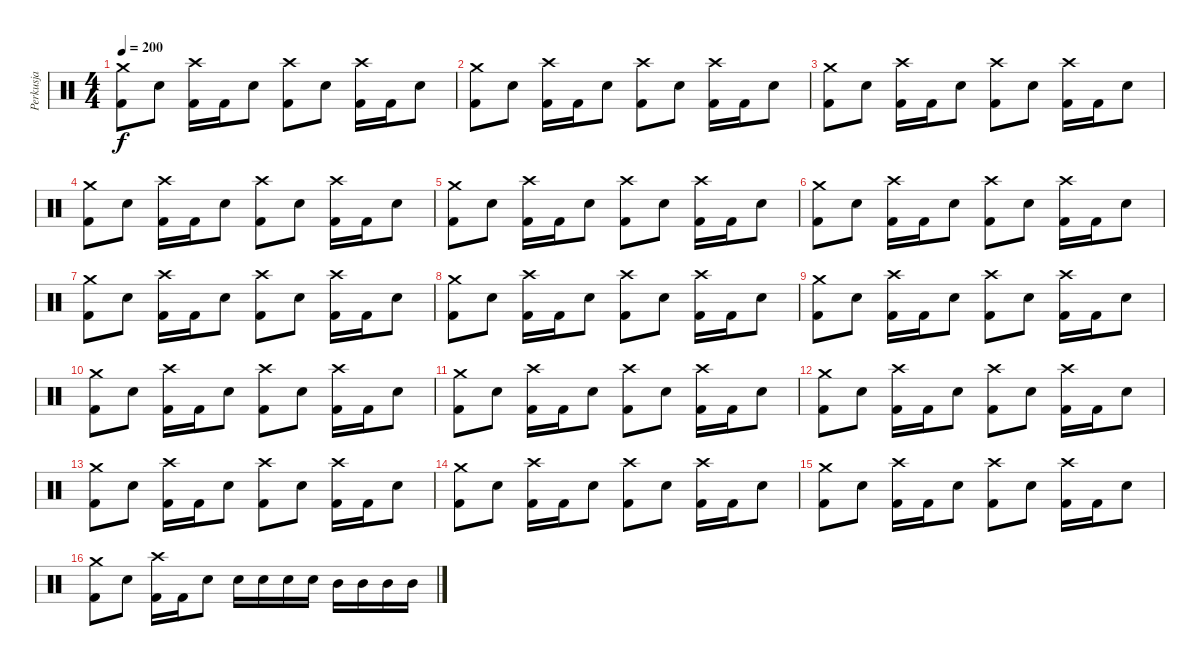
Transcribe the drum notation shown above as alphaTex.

\track ("Perkusja" "Perkusja") {instrument percussion}
\staff {score}
\articulation defaults
\ts (4 4)
\tempo 200
\clef neutral
\ks c
("Crash medium (hit)" "Kick (hit) 2").8{dy f} "Snare (hit) 2".8 ("Crash high (hit)" "Kick (hit) 2").16 "Kick (hit) 2".16 "Snare (hit) 2".8 ("Crash high (hit)" "Kick (hit) 2").8 "Snare (hit) 2".8 ("Crash high (hit)" "Kick (hit) 2").16 "Kick (hit) 2".16 "Snare (hit) 2".8 |
("Crash medium (hit)" "Kick (hit) 2").8 "Snare (hit) 2".8 ("Crash high (hit)" "Kick (hit) 2").16 "Kick (hit) 2".16 "Snare (hit) 2".8 ("Crash high (hit)" "Kick (hit) 2").8 "Snare (hit) 2".8 ("Crash high (hit)" "Kick (hit) 2").16 "Kick (hit) 2".16 "Snare (hit) 2".8 |
("Crash medium (hit)" "Kick (hit) 2").8 "Snare (hit) 2".8 ("Crash high (hit)" "Kick (hit) 2").16 "Kick (hit) 2".16 "Snare (hit) 2".8 ("Crash high (hit)" "Kick (hit) 2").8 "Snare (hit) 2".8 ("Crash high (hit)" "Kick (hit) 2").16 "Kick (hit) 2".16 "Snare (hit) 2".8 |
("Crash medium (hit)" "Kick (hit) 2").8 "Snare (hit) 2".8 ("Crash high (hit)" "Kick (hit) 2").16 "Kick (hit) 2".16 "Snare (hit) 2".8 ("Crash high (hit)" "Kick (hit) 2").8 "Snare (hit) 2".8 ("Crash high (hit)" "Kick (hit) 2").16 "Kick (hit) 2".16 "Snare (hit) 2".8 |
("Crash medium (hit)" "Kick (hit) 2").8 "Snare (hit) 2".8 ("Crash high (hit)" "Kick (hit) 2").16 "Kick (hit) 2".16 "Snare (hit) 2".8 ("Crash high (hit)" "Kick (hit) 2").8 "Snare (hit) 2".8 ("Crash high (hit)" "Kick (hit) 2").16 "Kick (hit) 2".16 "Snare (hit) 2".8 |
("Crash medium (hit)" "Kick (hit) 2").8 "Snare (hit) 2".8 ("Crash high (hit)" "Kick (hit) 2").16 "Kick (hit) 2".16 "Snare (hit) 2".8 ("Crash high (hit)" "Kick (hit) 2").8 "Snare (hit) 2".8 ("Crash high (hit)" "Kick (hit) 2").16 "Kick (hit) 2".16 "Snare (hit) 2".8 |
("Crash medium (hit)" "Kick (hit) 2").8 "Snare (hit) 2".8 ("Crash high (hit)" "Kick (hit) 2").16 "Kick (hit) 2".16 "Snare (hit) 2".8 ("Crash high (hit)" "Kick (hit) 2").8 "Snare (hit) 2".8 ("Crash high (hit)" "Kick (hit) 2").16 "Kick (hit) 2".16 "Snare (hit) 2".8 |
("Crash medium (hit)" "Kick (hit) 2").8 "Snare (hit) 2".8 ("Crash high (hit)" "Kick (hit) 2").16 "Kick (hit) 2".16 "Snare (hit) 2".8 ("Crash high (hit)" "Kick (hit) 2").8 "Snare (hit) 2".8 ("Crash high (hit)" "Kick (hit) 2").16 "Kick (hit) 2".16 "Snare (hit) 2".8 |
("Crash medium (hit)" "Kick (hit) 2").8 "Snare (hit) 2".8 ("Crash high (hit)" "Kick (hit) 2").16 "Kick (hit) 2".16 "Snare (hit) 2".8 ("Crash high (hit)" "Kick (hit) 2").8 "Snare (hit) 2".8 ("Crash high (hit)" "Kick (hit) 2").16 "Kick (hit) 2".16 "Snare (hit) 2".8 |
("Crash medium (hit)" "Kick (hit) 2").8 "Snare (hit) 2".8 ("Crash high (hit)" "Kick (hit) 2").16 "Kick (hit) 2".16 "Snare (hit) 2".8 ("Crash high (hit)" "Kick (hit) 2").8 "Snare (hit) 2".8 ("Crash high (hit)" "Kick (hit) 2").16 "Kick (hit) 2".16 "Snare (hit) 2".8 |
("Crash medium (hit)" "Kick (hit) 2").8 "Snare (hit) 2".8 ("Crash high (hit)" "Kick (hit) 2").16 "Kick (hit) 2".16 "Snare (hit) 2".8 ("Crash high (hit)" "Kick (hit) 2").8 "Snare (hit) 2".8 ("Crash high (hit)" "Kick (hit) 2").16 "Kick (hit) 2".16 "Snare (hit) 2".8 |
("Crash medium (hit)" "Kick (hit) 2").8 "Snare (hit) 2".8 ("Crash high (hit)" "Kick (hit) 2").16 "Kick (hit) 2".16 "Snare (hit) 2".8 ("Crash high (hit)" "Kick (hit) 2").8 "Snare (hit) 2".8 ("Crash high (hit)" "Kick (hit) 2").16 "Kick (hit) 2".16 "Snare (hit) 2".8 |
("Crash medium (hit)" "Kick (hit) 2").8 "Snare (hit) 2".8 ("Crash high (hit)" "Kick (hit) 2").16 "Kick (hit) 2".16 "Snare (hit) 2".8 ("Crash high (hit)" "Kick (hit) 2").8 "Snare (hit) 2".8 ("Crash high (hit)" "Kick (hit) 2").16 "Kick (hit) 2".16 "Snare (hit) 2".8 |
("Crash medium (hit)" "Kick (hit) 2").8 "Snare (hit) 2".8 ("Crash high (hit)" "Kick (hit) 2").16 "Kick (hit) 2".16 "Snare (hit) 2".8 ("Crash high (hit)" "Kick (hit) 2").8 "Snare (hit) 2".8 ("Crash high (hit)" "Kick (hit) 2").16 "Kick (hit) 2".16 "Snare (hit) 2".8 |
("Crash medium (hit)" "Kick (hit) 2").8 "Snare (hit) 2".8 ("Crash high (hit)" "Kick (hit) 2").16 "Kick (hit) 2".16 "Snare (hit) 2".8 ("Crash high (hit)" "Kick (hit) 2").8 "Snare (hit) 2".8 ("Crash high (hit)" "Kick (hit) 2").16 "Kick (hit) 2".16 "Snare (hit) 2".8 |
("Crash medium (hit)" "Kick (hit) 2").8 "Snare (hit) 2".8 ("Crash high (hit)" "Kick (hit) 2").16 "Kick (hit) 2".16 "Snare (hit) 2".8 "Snare (hit) 2".16 "Snare (hit) 2".16 "Snare (hit) 2".16 "Snare (hit) 2".16 "Mid Tom (hit)".16 "Mid Tom (hit)".16 "Mid Tom (hit)".16 "Mid Tom (hit)".16
